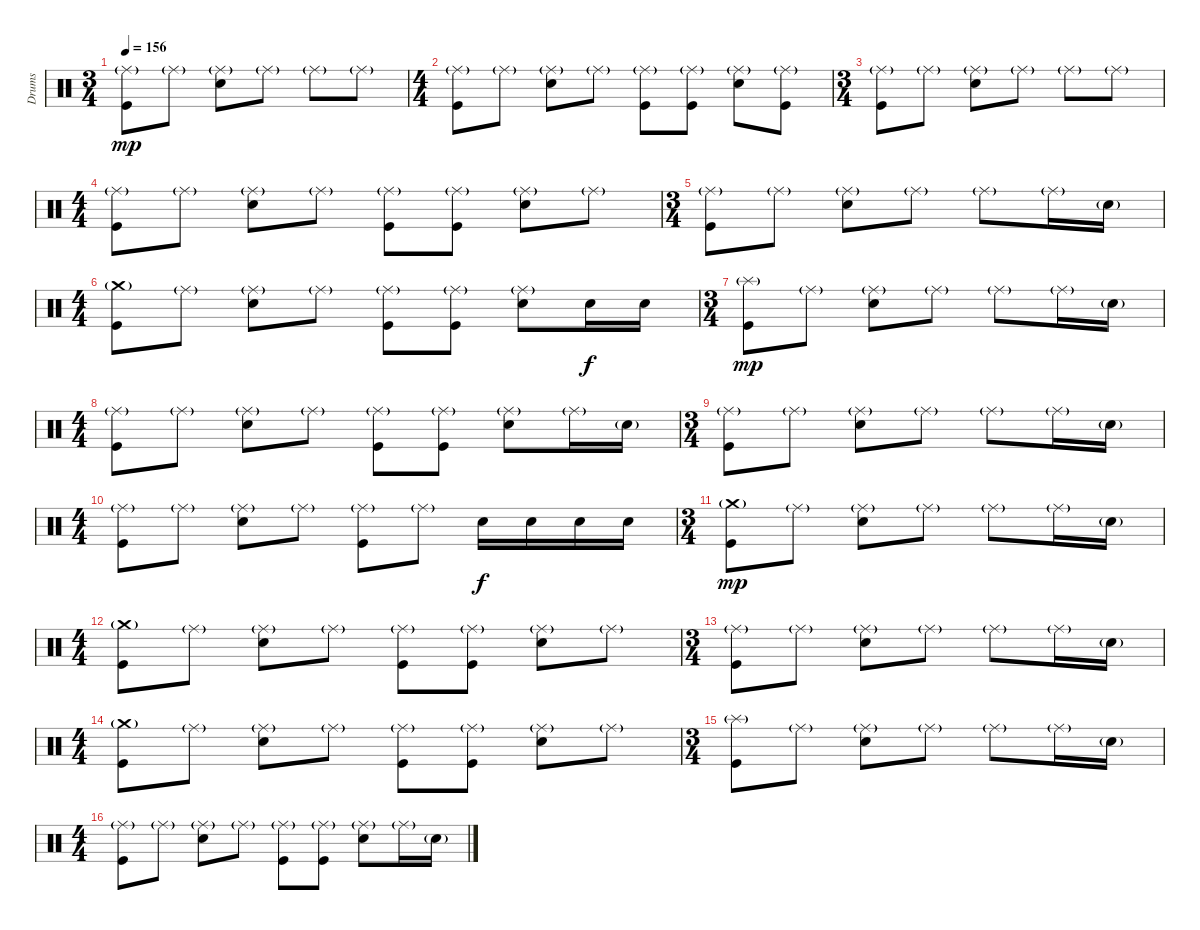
\track ("Drums" "Drums") {instrument percussion}
\staff {score}
\articulation defaults
\ts (3 4)
\tempo 156
\clef neutral
\ks c
("Ride (middle)"{g} "Kick (hit)").8{dy mp} "Ride (middle)"{g}.8 ("Ride (middle)"{g} "Electric Snare (hit)").8 "Ride (middle)"{g}.8 "Ride (middle)"{g}.8 "Ride (middle)"{g}.8 |
\ts (4 4)
("Ride (middle)"{g} "Kick (hit)").8 "Ride (middle)"{g}.8 ("Ride (middle)"{g} "Electric Snare (hit)").8 "Ride (middle)"{g}.8 ("Ride (middle)"{g} "Kick (hit)").8 ("Ride (middle)"{g} "Kick (hit)").8 ("Ride (middle)"{g} "Electric Snare (hit)").8 ("Ride (middle)"{g} "Kick (hit)").8 |
\ts (3 4)
("Ride (middle)"{g} "Kick (hit)").8 "Ride (middle)"{g}.8 ("Ride (middle)"{g} "Electric Snare (hit)").8 "Ride (middle)"{g}.8 "Ride (middle)"{g}.8 "Ride (middle)"{g}.8 |
\ts (4 4)
("Ride (middle)"{g} "Kick (hit)").8 "Ride (middle)"{g}.8 ("Ride (middle)"{g} "Electric Snare (hit)").8 "Ride (middle)"{g}.8 ("Ride (middle)"{g} "Kick (hit)").8 ("Ride (middle)"{g} "Kick (hit)").8 ("Ride (middle)"{g} "Electric Snare (hit)").8 "Ride (middle)"{g}.8 |
\ts (3 4)
("Ride (middle)"{g} "Kick (hit)").8 "Ride (middle)"{g}.8 ("Ride (middle)"{g} "Electric Snare (hit)").8 "Ride (middle)"{g}.8 "Ride (middle)"{g}.8 "Ride (middle)"{g}.16 "Electric Snare (hit)"{g}.16 |
\ts (4 4)
("Crash medium (hit)"{g} "Kick (hit)").8 "Ride (middle)"{g}.8 ("Ride (middle)"{g} "Electric Snare (hit)").8 "Ride (middle)"{g}.8 ("Ride (middle)"{g} "Kick (hit)").8 ("Ride (middle)"{g} "Kick (hit)").8 ("Ride (middle)"{g} "Electric Snare (hit)").8 "Electric Snare (hit)".16{dy f} "Electric Snare (hit)".16 |
\ts (3 4)
("Splash (hit)"{g} "Kick (hit)").8{dy mp} "Ride (middle)"{g}.8 ("Ride (middle)"{g} "Electric Snare (hit)").8 "Ride (middle)"{g}.8 "Ride (middle)"{g}.8 "Ride (middle)"{g}.16 "Electric Snare (hit)"{g}.16 |
\ts (4 4)
("Ride (middle)"{g} "Kick (hit)").8 "Ride (middle)"{g}.8 ("Ride (middle)"{g} "Electric Snare (hit)").8 "Ride (middle)"{g}.8 ("Ride (middle)"{g} "Kick (hit)").8 ("Ride (middle)"{g} "Kick (hit)").8 ("Ride (middle)"{g} "Electric Snare (hit)").8 "Ride (middle)"{g}.16 "Electric Snare (hit)"{g}.16 |
\ts (3 4)
("Ride (middle)"{g} "Kick (hit)").8 "Ride (middle)"{g}.8 ("Ride (middle)"{g} "Electric Snare (hit)").8 "Ride (middle)"{g}.8 "Ride (middle)"{g}.8 "Ride (middle)"{g}.16 "Electric Snare (hit)"{g}.16 |
\ts (4 4)
("Ride (middle)"{g} "Kick (hit)").8 "Ride (middle)"{g}.8 ("Ride (middle)"{g} "Electric Snare (hit)").8 "Ride (middle)"{g}.8 ("Ride (middle)"{g} "Kick (hit)").8 "Ride (middle)"{g}.8 "Electric Snare (hit)".16{dy f} "Electric Snare (hit)".16 "Electric Snare (hit)".16 "Electric Snare (hit)".16 |
\ts (3 4)
("Crash medium (hit)"{g} "Kick (hit)").8{dy mp} "Ride (middle)"{g}.8 ("Ride (middle)"{g} "Electric Snare (hit)").8 "Ride (middle)"{g}.8 "Ride (middle)"{g}.8 "Ride (middle)"{g}.16 "Electric Snare (hit)"{g}.16 |
\ts (4 4)
("Crash medium (hit)"{g} "Kick (hit)").8 "Ride (middle)"{g}.8 ("Ride (middle)"{g} "Electric Snare (hit)").8 "Ride (middle)"{g}.8 ("Ride (middle)"{g} "Kick (hit)").8 ("Ride (middle)"{g} "Kick (hit)").8 ("Ride (middle)"{g} "Electric Snare (hit)").8 "Ride (middle)"{g}.8 |
\ts (3 4)
("Ride (middle)"{g} "Kick (hit)").8 "Ride (middle)"{g}.8 ("Ride (middle)"{g} "Electric Snare (hit)").8 "Ride (middle)"{g}.8 "Ride (middle)"{g}.8 "Ride (middle)"{g}.16 "Electric Snare (hit)"{g}.16 |
\ts (4 4)
("Crash medium (hit)"{g} "Kick (hit)").8 "Ride (middle)"{g}.8 ("Ride (middle)"{g} "Electric Snare (hit)").8 "Ride (middle)"{g}.8 ("Ride (middle)"{g} "Kick (hit)").8 ("Ride (middle)"{g} "Kick (hit)").8 ("Ride (middle)"{g} "Electric Snare (hit)").8 "Ride (middle)"{g}.8 |
\ts (3 4)
("Splash (hit)"{g} "Kick (hit)").8 "Ride (middle)"{g}.8 ("Ride (middle)"{g} "Electric Snare (hit)").8 "Ride (middle)"{g}.8 "Ride (middle)"{g}.8 "Ride (middle)"{g}.16 "Electric Snare (hit)"{g}.16 |
\ts (4 4)
("Ride (middle)"{g} "Kick (hit)").8 "Ride (middle)"{g}.8 ("Ride (middle)"{g} "Electric Snare (hit)").8 "Ride (middle)"{g}.8 ("Ride (middle)"{g} "Kick (hit)").8 ("Ride (middle)"{g} "Kick (hit)").8 ("Ride (middle)"{g} "Electric Snare (hit)").8 "Ride (middle)"{g}.16 "Electric Snare (hit)"{g}.16
